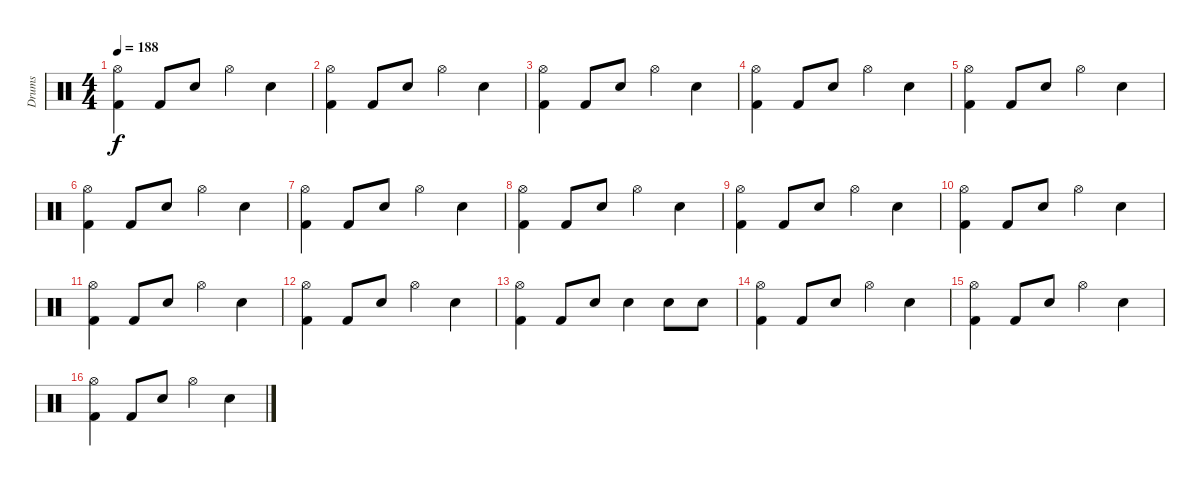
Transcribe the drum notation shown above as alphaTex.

\track ("Drums" "Drums") {instrument percussion}
\staff {score}
\articulation defaults
\ts (4 4)
\tempo 188
\clef neutral
\ks c
("Hi-Hat (open)" "Kick (hit) 2").4{dy f} "Kick (hit) 2".8 "Electric Snare (hit)".8 "Hi-Hat (open)".4 "Electric Snare (hit)".4 |
("Hi-Hat (open)" "Kick (hit) 2").4 "Kick (hit) 2".8 "Electric Snare (hit)".8 "Hi-Hat (open)".4 "Electric Snare (hit)".4 |
("Hi-Hat (open)" "Kick (hit) 2").4 "Kick (hit) 2".8 "Electric Snare (hit)".8 "Hi-Hat (open)".4 "Electric Snare (hit)".4 |
("Hi-Hat (open)" "Kick (hit) 2").4 "Kick (hit) 2".8 "Electric Snare (hit)".8 "Hi-Hat (open)".4 "Electric Snare (hit)".4 |
("Hi-Hat (open)" "Kick (hit) 2").4 "Kick (hit) 2".8 "Electric Snare (hit)".8 "Hi-Hat (open)".4 "Electric Snare (hit)".4 |
("Hi-Hat (open)" "Kick (hit) 2").4 "Kick (hit) 2".8 "Electric Snare (hit)".8 "Hi-Hat (open)".4 "Electric Snare (hit)".4 |
("Hi-Hat (open)" "Kick (hit) 2").4 "Kick (hit) 2".8 "Electric Snare (hit)".8 "Hi-Hat (open)".4 "Electric Snare (hit)".4 |
("Hi-Hat (open)" "Kick (hit) 2").4 "Kick (hit) 2".8 "Electric Snare (hit)".8 "Hi-Hat (open)".4 "Electric Snare (hit)".4 |
("Hi-Hat (open)" "Kick (hit) 2").4 "Kick (hit) 2".8 "Electric Snare (hit)".8 "Hi-Hat (open)".4 "Electric Snare (hit)".4 |
("Hi-Hat (open)" "Kick (hit) 2").4 "Kick (hit) 2".8 "Electric Snare (hit)".8 "Hi-Hat (open)".4 "Electric Snare (hit)".4 |
("Hi-Hat (open)" "Kick (hit) 2").4 "Kick (hit) 2".8 "Electric Snare (hit)".8 "Hi-Hat (open)".4 "Electric Snare (hit)".4 |
("Hi-Hat (open)" "Kick (hit) 2").4 "Kick (hit) 2".8 "Electric Snare (hit)".8 "Hi-Hat (open)".4 "Electric Snare (hit)".4 |
("Hi-Hat (open)" "Kick (hit) 2").4 "Kick (hit) 2".8 "Electric Snare (hit)".8 "Electric Snare (hit)".4 "Electric Snare (hit)".8 "Electric Snare (hit)".8 |
("Hi-Hat (open)" "Kick (hit) 2").4 "Kick (hit) 2".8 "Electric Snare (hit)".8 "Hi-Hat (open)".4 "Electric Snare (hit)".4 |
("Hi-Hat (open)" "Kick (hit) 2").4 "Kick (hit) 2".8 "Electric Snare (hit)".8 "Hi-Hat (open)".4 "Electric Snare (hit)".4 |
("Hi-Hat (open)" "Kick (hit) 2").4 "Kick (hit) 2".8 "Electric Snare (hit)".8 "Hi-Hat (open)".4 "Electric Snare (hit)".4
